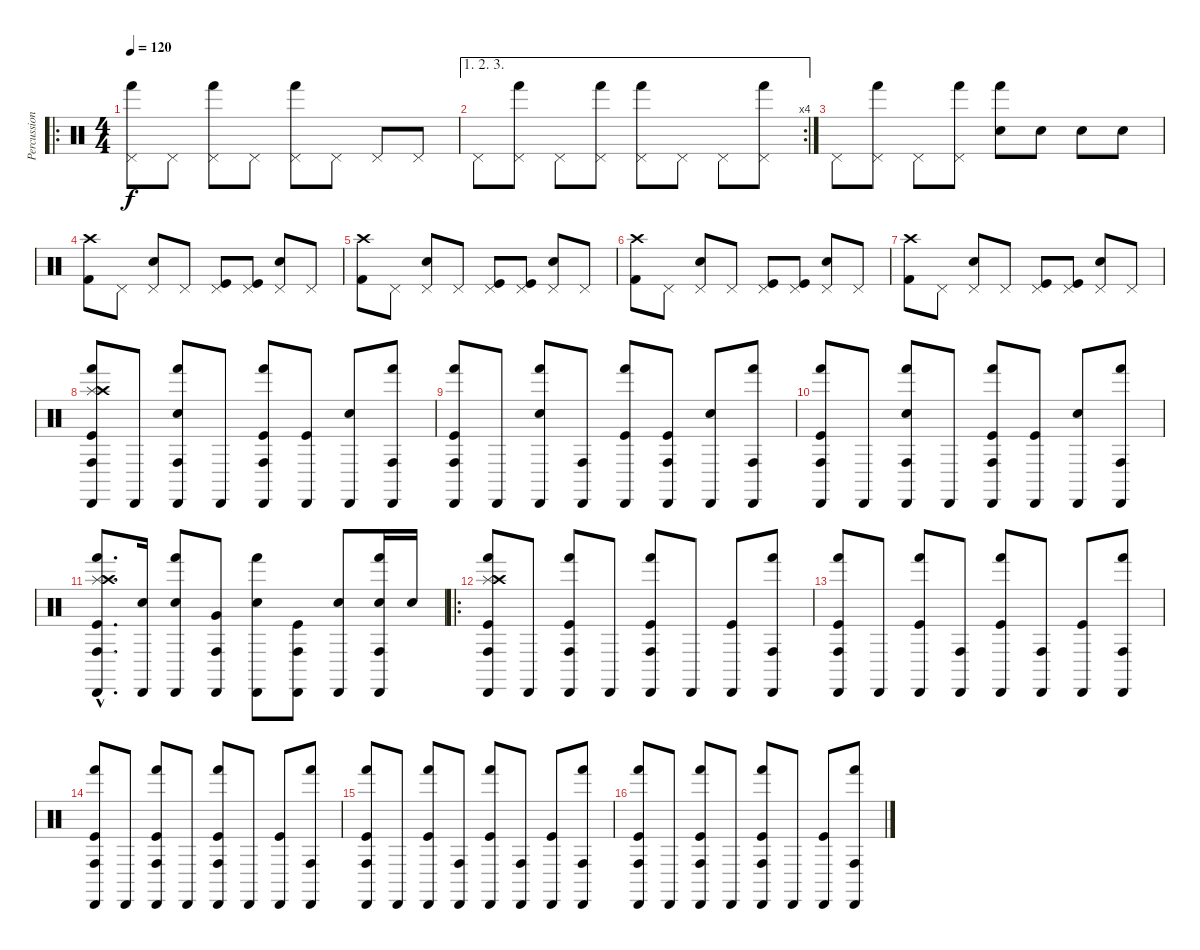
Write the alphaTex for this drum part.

\track ("Percussion" "Percussion") {instrument percussion}
\staff {score}
\articulation defaults
\ro
\ts (4 4)
\tempo 120
\clef neutral
\ks c
("Pedal Hi-Hat (hit)" "Hand (hit)").8{dy f} "Pedal Hi-Hat (hit)".8 ("Pedal Hi-Hat (hit)" "Hand (hit)").8 "Pedal Hi-Hat (hit)".8 ("Pedal Hi-Hat (hit)" "Hand (hit)").8 "Pedal Hi-Hat (hit)".8 "Pedal Hi-Hat (hit)".8 "Pedal Hi-Hat (hit)".8 |
\ae (1 2 3)
\rc 4 "Pedal Hi-Hat (hit)".8
("Pedal Hi-Hat (hit)" "Hand (hit)").8 "Pedal Hi-Hat (hit)".8 ("Pedal Hi-Hat (hit)" "Hand (hit)").8 ("Pedal Hi-Hat (hit)" "Hand (hit)").8 "Pedal Hi-Hat (hit)".8 "Pedal Hi-Hat (hit)".8 ("Pedal Hi-Hat (hit)" "Hand (hit)").8 |
"Pedal Hi-Hat (hit)".8 ("Pedal Hi-Hat (hit)" "Hand (hit)").8 "Pedal Hi-Hat (hit)".8 ("Pedal Hi-Hat (hit)" "Hand (hit)").8 ("Electric Snare (hit)" "Hand (hit)").8 "Electric Snare (hit)".8 "Electric Snare (hit)".8 "Electric Snare (hit)".8 |
("Crash high (hit)" "Kick (hit) 2").8 "Pedal Hi-Hat (hit)".8 ("Pedal Hi-Hat (hit)" "Electric Snare (hit)").8 "Pedal Hi-Hat (hit)".8 ("Pedal Hi-Hat (hit)" "Kick (hit)").8 ("Pedal Hi-Hat (hit)" "Kick (hit)").8 ("Pedal Hi-Hat (hit)" "Electric Snare (hit)").8 "Pedal Hi-Hat (hit)".8 |
("Crash high (hit)" "Kick (hit) 2").8 "Pedal Hi-Hat (hit)".8 ("Pedal Hi-Hat (hit)" "Electric Snare (hit)").8 "Pedal Hi-Hat (hit)".8 ("Pedal Hi-Hat (hit)" "Kick (hit)").8 ("Pedal Hi-Hat (hit)" "Kick (hit)").8 ("Pedal Hi-Hat (hit)" "Electric Snare (hit)").8 "Pedal Hi-Hat (hit)".8 |
("Crash high (hit)" "Kick (hit) 2").8 "Pedal Hi-Hat (hit)".8 ("Pedal Hi-Hat (hit)" "Electric Snare (hit)").8 "Pedal Hi-Hat (hit)".8 ("Pedal Hi-Hat (hit)" "Kick (hit)").8 ("Pedal Hi-Hat (hit)" "Kick (hit)").8 ("Pedal Hi-Hat (hit)" "Electric Snare (hit)").8 "Pedal Hi-Hat (hit)".8 |
("Crash high (hit)" "Kick (hit) 2").8 "Pedal Hi-Hat (hit)".8 ("Pedal Hi-Hat (hit)" "Electric Snare (hit)").8 "Pedal Hi-Hat (hit)".8 ("Pedal Hi-Hat (hit)" "Kick (hit)").8 ("Pedal Hi-Hat (hit)" "Kick (hit)").8 ("Pedal Hi-Hat (hit)" "Electric Snare (hit)").8 "Pedal Hi-Hat (hit)".8 |
("Cabasa (hit)" "Kick (hit)" "Hand (hit)" "Conga high (hit)" "Splash (hit)" "Crash high (hit)").8 "Cabasa (hit)".8 ("Cabasa (hit)" "Electric Snare (hit)" "Hand (hit)" "Conga high (hit)").8 "Cabasa (hit)".8 ("Cabasa (hit)" "Kick (hit)" "Hand (hit)" "Conga high (hit)").8 ("Cabasa (hit)" "Kick (hit)").8 ("Cabasa (hit)" "Electric Snare (hit)").8 ("Cabasa (hit)" "Hand (hit)" "Conga high (hit)").8 |
("Cabasa (hit)" "Kick (hit)" "Hand (hit)" "Conga high (hit)").8 "Cabasa (hit)".8 ("Cabasa (hit)" "Electric Snare (hit)" "Hand (hit)").8 ("Cabasa (hit)" "Conga high (hit)").8 ("Cabasa (hit)" "Kick (hit)" "Hand (hit)").8 ("Cabasa (hit)" "Kick (hit)" "Conga high (hit)").8 ("Cabasa (hit)" "Electric Snare (hit)").8 ("Cabasa (hit)" "Hand (hit)" "Conga high (hit)").8 |
("Cabasa (hit)" "Kick (hit)" "Hand (hit)" "Conga high (hit)").8 "Cabasa (hit)".8 ("Cabasa (hit)" "Electric Snare (hit)" "Hand (hit)" "Conga high (hit)").8 "Cabasa (hit)".8 ("Cabasa (hit)" "Kick (hit)" "Hand (hit)" "Conga high (hit)").8 ("Cabasa (hit)" "Kick (hit)").8 ("Cabasa (hit)" "Electric Snare (hit)").8 ("Cabasa (hit)" "Hand (hit)" "Conga high (hit)").8 |
("Cabasa (hit)"{hac} "Kick (hit)"{hac} "Hand (hit)"{hac} "Conga high (hit)"{hac} "Splash (hit)"{hac} "Crash high (hit)"{hac}).8{d} ("Cabasa (hit)" "Snare (hit) 2").16 ("Cabasa (hit)" "Snare (hit) 2" "Hand (hit)").8 ("Cabasa (hit)" "Very Low Tom (hit)" "Conga high (hit)").8 ("Cabasa (hit)" "Snare (hit) 2" "Hand (hit)").8 ("Cabasa (hit)" "Kick (hit)" "Conga high (hit)").8 ("Cabasa (hit)" "Snare (hit) 2").8 ("Cabasa (hit)" "Snare (hit) 2" "Hand (hit)" "Conga high (hit)").16 "Snare (hit) 2".16 |
\ro
("Cabasa (hit)" "Kick (hit)" "Hand (hit)" "Conga high (hit)" "Splash (hit)" "Crash high (hit)").8 "Cabasa (hit)".8 ("Cabasa (hit)" "Kick (hit)" "Hand (hit)" "Conga high (hit)").8 "Cabasa (hit)".8 ("Cabasa (hit)" "Kick (hit)" "Hand (hit)" "Conga high (hit)").8 "Cabasa (hit)".8 ("Cabasa (hit)" "Kick (hit)").8 ("Cabasa (hit)" "Hand (hit)" "Conga high (hit)").8 |
("Cabasa (hit)" "Kick (hit)" "Hand (hit)" "Conga high (hit)").8 "Cabasa (hit)".8 ("Cabasa (hit)" "Kick (hit)" "Hand (hit)").8 ("Cabasa (hit)" "Conga high (hit)").8 ("Cabasa (hit)" "Kick (hit)" "Hand (hit)").8 ("Cabasa (hit)" "Conga high (hit)").8 ("Cabasa (hit)" "Kick (hit)").8 ("Cabasa (hit)" "Hand (hit)" "Conga high (hit)").8 |
("Cabasa (hit)" "Kick (hit)" "Hand (hit)" "Conga high (hit)").8 "Cabasa (hit)".8 ("Cabasa (hit)" "Kick (hit)" "Hand (hit)" "Conga high (hit)").8 "Cabasa (hit)".8 ("Cabasa (hit)" "Kick (hit)" "Hand (hit)" "Conga high (hit)").8 "Cabasa (hit)".8 ("Cabasa (hit)" "Kick (hit)").8 ("Cabasa (hit)" "Hand (hit)" "Conga high (hit)").8 |
("Cabasa (hit)" "Kick (hit)" "Hand (hit)" "Conga high (hit)").8 "Cabasa (hit)".8 ("Cabasa (hit)" "Kick (hit)" "Hand (hit)").8 ("Cabasa (hit)" "Conga high (hit)").8 ("Cabasa (hit)" "Kick (hit)" "Hand (hit)").8 ("Cabasa (hit)" "Conga high (hit)").8 ("Cabasa (hit)" "Kick (hit)").8 ("Cabasa (hit)" "Hand (hit)" "Conga high (hit)").8 |
("Cabasa (hit)" "Kick (hit)" "Hand (hit)" "Conga high (hit)").8 "Cabasa (hit)".8 ("Cabasa (hit)" "Kick (hit)" "Hand (hit)" "Conga high (hit)").8 "Cabasa (hit)".8 ("Cabasa (hit)" "Kick (hit)" "Hand (hit)" "Conga high (hit)").8 "Cabasa (hit)".8 ("Cabasa (hit)" "Kick (hit)").8 ("Cabasa (hit)" "Hand (hit)" "Conga high (hit)").8
